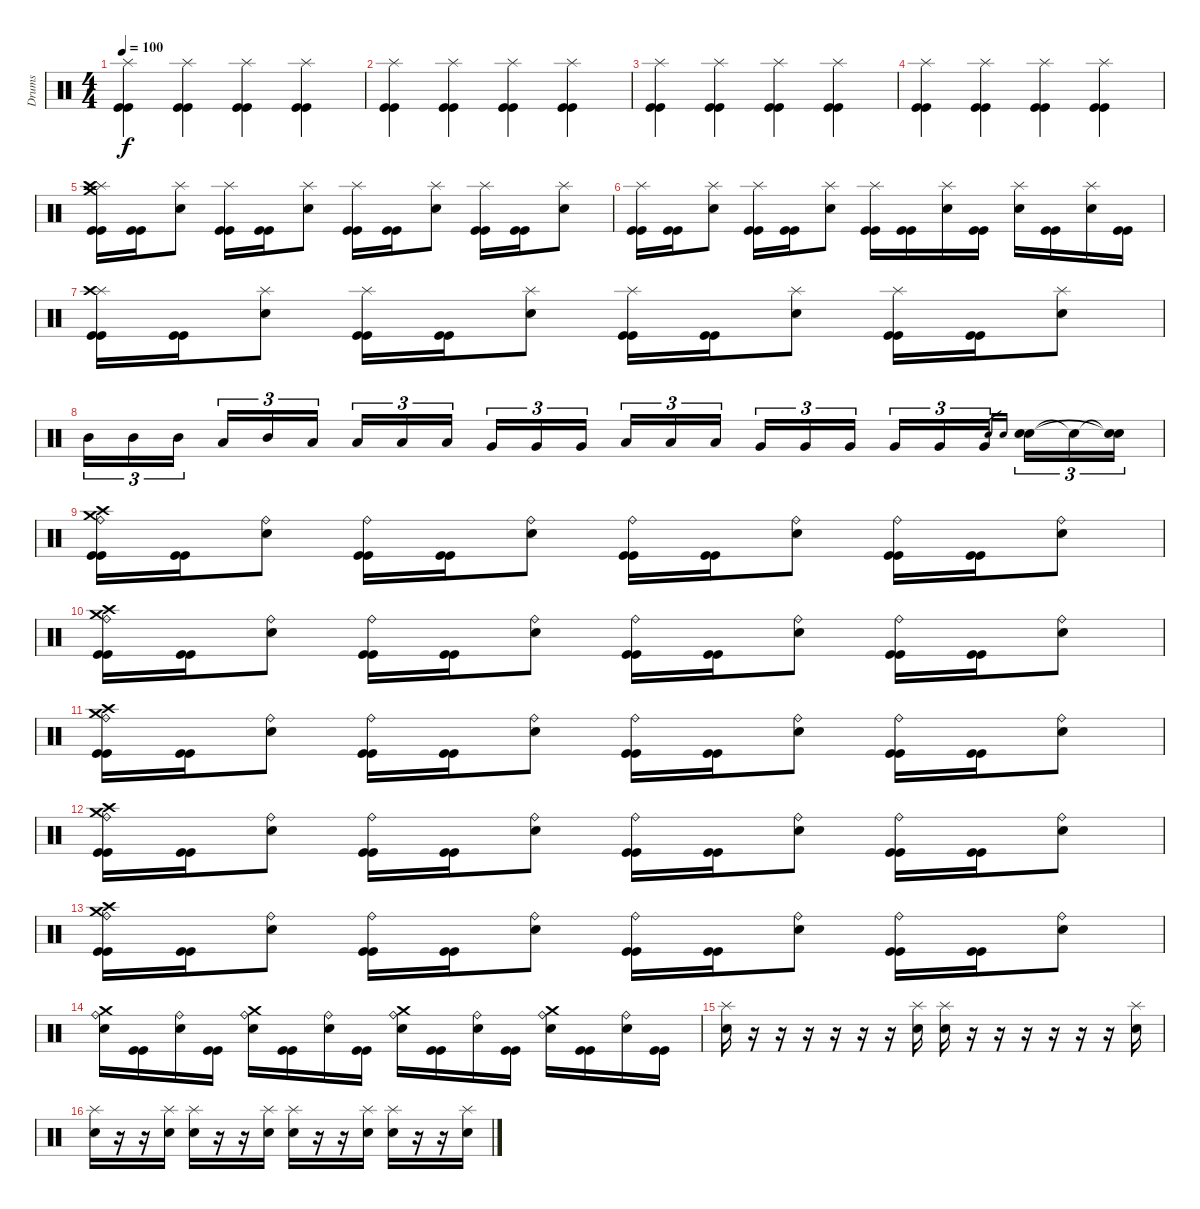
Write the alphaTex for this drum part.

\track ("Drums" "Drums") {instrument percussion}
\staff {score}
\articulation defaults
\ts (4 4)
\tempo 100
\clef neutral
\ks c
("Splash (hit)" "Kick (hit)" "Kick (hit)").4{dy f} ("Splash (hit)" "Kick (hit)" "Kick (hit)").4 ("Splash (hit)" "Kick (hit)" "Kick (hit)").4 ("Splash (hit)" "Kick (hit)" "Kick (hit)").4 |
("Splash (hit)" "Kick (hit)" "Kick (hit)").4 ("Splash (hit)" "Kick (hit)" "Kick (hit)").4 ("Splash (hit)" "Kick (hit)" "Kick (hit)").4 ("Splash (hit)" "Kick (hit)" "Kick (hit)").4 |
("Splash (hit)" "Kick (hit)" "Kick (hit)").4 ("Splash (hit)" "Kick (hit)" "Kick (hit)").4 ("Splash (hit)" "Kick (hit)" "Kick (hit)").4 ("Splash (hit)" "Kick (hit)" "Kick (hit)").4 |
("Splash (hit)" "Kick (hit)" "Kick (hit)").4 ("Splash (hit)" "Kick (hit)" "Kick (hit)").4 ("Splash (hit)" "Kick (hit)" "Kick (hit)").4 ("Splash (hit)" "Kick (hit)" "Kick (hit)").4 |
("Splash (hit)" "Crash high (hit)" "Crash medium (hit)" "Kick (hit)" "Kick (hit)").16 ("Kick (hit)" "Kick (hit)").16 ("Splash (hit)" "Snare (hit) 2").8 ("Splash (hit)" "Kick (hit)" "Kick (hit)").16 ("Kick (hit)" "Kick (hit)").16 ("Splash (hit)" "Snare (hit) 2").8 ("Splash (hit)" "Kick (hit)" "Kick (hit)").16 ("Kick (hit)" "Kick (hit)").16 ("Splash (hit)" "Snare (hit) 2").8 ("Splash (hit)" "Kick (hit)" "Kick (hit)").16 ("Kick (hit)" "Kick (hit)").16 ("Splash (hit)" "Snare (hit) 2").8 |
("Splash (hit)" "Kick (hit)" "Kick (hit)").16 ("Kick (hit)" "Kick (hit)").16 ("Splash (hit)" "Snare (hit) 2").8 ("Splash (hit)" "Kick (hit)" "Kick (hit)").16 ("Kick (hit)" "Kick (hit)").16 ("Splash (hit)" "Snare (hit) 2").8 ("Splash (hit)" "Kick (hit)" "Kick (hit)").16 ("Kick (hit)" "Kick (hit)").16 ("Splash (hit)" "Snare (hit) 2").16 ("Kick (hit)" "Kick (hit)").16 ("Splash (hit)" "Snare (hit) 2").16 ("Kick (hit)" "Kick (hit)").16 ("Splash (hit)" "Snare (hit) 2").16 ("Kick (hit)" "Kick (hit)").16 |
("Splash (hit)" "Crash high (hit)" "Kick (hit)" "Kick (hit)").16 ("Kick (hit)" "Kick (hit)").16 ("Splash (hit)" "Snare (hit) 2").8 ("Splash (hit)" "Kick (hit)" "Kick (hit)").16 ("Kick (hit)" "Kick (hit)").16 ("Splash (hit)" "Snare (hit) 2").8 ("Splash (hit)" "Kick (hit)" "Kick (hit)").16 ("Kick (hit)" "Kick (hit)").16 ("Splash (hit)" "Snare (hit) 2").8 ("Splash (hit)" "Kick (hit)" "Kick (hit)").16 ("Kick (hit)" "Kick (hit)").16 ("Splash (hit)" "Snare (hit) 2").8 |
"Mid Tom (hit)".16{tu (3 2)} "Mid Tom (hit)".16{tu (3 2)} "Mid Tom (hit)".16{tu (3 2)} "Low Tom (hit)".16{tu (3 2)} "Mid Tom (hit)".16{tu (3 2)} "Low Tom (hit)".16{tu (3 2)} "Low Tom (hit)".16{tu (3 2)} "Low Tom (hit)".16{tu (3 2)} "Low Tom (hit)".16{tu (3 2)} "Very Low Tom (hit)".16{tu (3 2)} "Very Low Tom (hit)".16{tu (3 2)} "Very Low Tom (hit)".16{tu (3 2)} "Low Tom (hit)".16{tu (3 2)} "Low Tom (hit)".16{tu (3 2)} "Low Tom (hit)".16{tu (3 2)} "Very Low Tom (hit)".16{tu (3 2)} "Very Low Tom (hit)".16{tu (3 2)} "Very Low Tom (hit)".16{tu (3 2)} "Very Low Tom (hit)".16{tu (3 2)} "Very Low Tom (hit)".16{tu (3 2)} "Very Low Tom (hit)".16{tu (3 2)} "Snare (hit) 2".16{gr} "Snare (hit) 2".16{gr} ("Snare (hit) 2" "Snare (hit) 2").16{tu (3 2)} "Snare (hit)"{t}.16{tu (3 2)} ("Snare (hit)"{t} "Snare (hit)"{t}).16{tu (3 2)} |
("Ride (bell)" "Crash high (hit)" "Crash medium (hit)" "Kick (hit)" "Kick (hit)").16 ("Kick (hit)" "Kick (hit)").16 ("Ride (bell)" "Snare (hit) 2").8 ("Ride (bell)" "Kick (hit)" "Kick (hit)").16 ("Kick (hit)" "Kick (hit)").16 ("Ride (bell)" "Snare (hit) 2").8 ("Ride (bell)" "Kick (hit)" "Kick (hit)").16 ("Kick (hit)" "Kick (hit)").16 ("Ride (bell)" "Snare (hit) 2").8 ("Ride (bell)" "Kick (hit)" "Kick (hit)").16 ("Kick (hit)" "Kick (hit)").16 ("Ride (bell)" "Snare (hit) 2").8 |
("Ride (bell)" "Crash high (hit)" "Crash medium (hit)" "Kick (hit)" "Kick (hit)").16 ("Kick (hit)" "Kick (hit)").16 ("Ride (bell)" "Snare (hit) 2").8 ("Ride (bell)" "Kick (hit)" "Kick (hit)").16 ("Kick (hit)" "Kick (hit)").16 ("Ride (bell)" "Snare (hit) 2").8 ("Ride (bell)" "Kick (hit)" "Kick (hit)").16 ("Kick (hit)" "Kick (hit)").16 ("Ride (bell)" "Snare (hit) 2").8 ("Ride (bell)" "Kick (hit)" "Kick (hit)").16 ("Kick (hit)" "Kick (hit)").16 ("Ride (bell)" "Snare (hit) 2").8 |
("Ride (bell)" "Crash high (hit)" "Crash medium (hit)" "Kick (hit)" "Kick (hit)").16 ("Kick (hit)" "Kick (hit)").16 ("Ride (bell)" "Snare (hit) 2").8 ("Ride (bell)" "Kick (hit)" "Kick (hit)").16 ("Kick (hit)" "Kick (hit)").16 ("Ride (bell)" "Snare (hit) 2").8 ("Ride (bell)" "Kick (hit)" "Kick (hit)").16 ("Kick (hit)" "Kick (hit)").16 ("Ride (bell)" "Snare (hit) 2").8 ("Ride (bell)" "Kick (hit)" "Kick (hit)").16 ("Kick (hit)" "Kick (hit)").16 ("Ride (bell)" "Snare (hit) 2").8 |
("Ride (bell)" "Crash high (hit)" "Crash medium (hit)" "Kick (hit)" "Kick (hit)").16 ("Kick (hit)" "Kick (hit)").16 ("Ride (bell)" "Snare (hit) 2").8 ("Ride (bell)" "Kick (hit)" "Kick (hit)").16 ("Kick (hit)" "Kick (hit)").16 ("Ride (bell)" "Snare (hit) 2").8 ("Ride (bell)" "Kick (hit)" "Kick (hit)").16 ("Kick (hit)" "Kick (hit)").16 ("Ride (bell)" "Snare (hit) 2").8 ("Ride (bell)" "Kick (hit)" "Kick (hit)").16 ("Kick (hit)" "Kick (hit)").16 ("Ride (bell)" "Snare (hit) 2").8 |
("Ride (bell)" "Crash high (hit)" "Crash medium (hit)" "Kick (hit)" "Kick (hit)").16 ("Kick (hit)" "Kick (hit)").16 ("Ride (bell)" "Snare (hit) 2").8 ("Ride (bell)" "Kick (hit)" "Kick (hit)").16 ("Kick (hit)" "Kick (hit)").16 ("Ride (bell)" "Snare (hit) 2").8 ("Ride (bell)" "Kick (hit)" "Kick (hit)").16 ("Kick (hit)" "Kick (hit)").16 ("Ride (bell)" "Snare (hit) 2").8 ("Ride (bell)" "Kick (hit)" "Kick (hit)").16 ("Kick (hit)" "Kick (hit)").16 ("Ride (bell)" "Snare (hit) 2").8 |
("Ride (bell)" "Snare (hit) 2" "Crash medium (hit)").16 ("Kick (hit)" "Kick (hit)").16 ("Ride (bell)" "Snare (hit) 2").16 ("Kick (hit)" "Kick (hit)").16 ("Ride (bell)" "Snare (hit) 2" "Crash medium (hit)").16 ("Kick (hit)" "Kick (hit)").16 ("Ride (bell)" "Snare (hit) 2").16 ("Kick (hit)" "Kick (hit)").16 ("Ride (bell)" "Snare (hit) 2" "Crash medium (hit)").16 ("Kick (hit)" "Kick (hit)").16 ("Ride (bell)" "Snare (hit) 2").16 ("Kick (hit)" "Kick (hit)").16 ("Ride (bell)" "Snare (hit) 2" "Crash medium (hit)").16 ("Kick (hit)" "Kick (hit)").16 ("Ride (bell)" "Snare (hit) 2").16 ("Kick (hit)" "Kick (hit)").16 |
("Splash (hit)" "Snare (hit) 2").16 r.16 r.16 r.16 r.16 r.16 r.16 ("Splash (hit)" "Snare (hit) 2").16 ("Splash (hit)" "Snare (hit) 2").16 r.16 r.16 r.16 r.16 r.16 r.16 ("Splash (hit)" "Snare (hit) 2").16 |
("Splash (hit)" "Snare (hit) 2").16 r.16 r.16 ("Splash (hit)" "Snare (hit) 2").16 ("Splash (hit)" "Snare (hit) 2").16 r.16 r.16 ("Splash (hit)" "Snare (hit) 2").16 ("Splash (hit)" "Snare (hit) 2").16 r.16 r.16 ("Splash (hit)" "Snare (hit) 2").16 ("Splash (hit)" "Snare (hit) 2").16 r.16 r.16 ("Splash (hit)" "Snare (hit) 2").16
